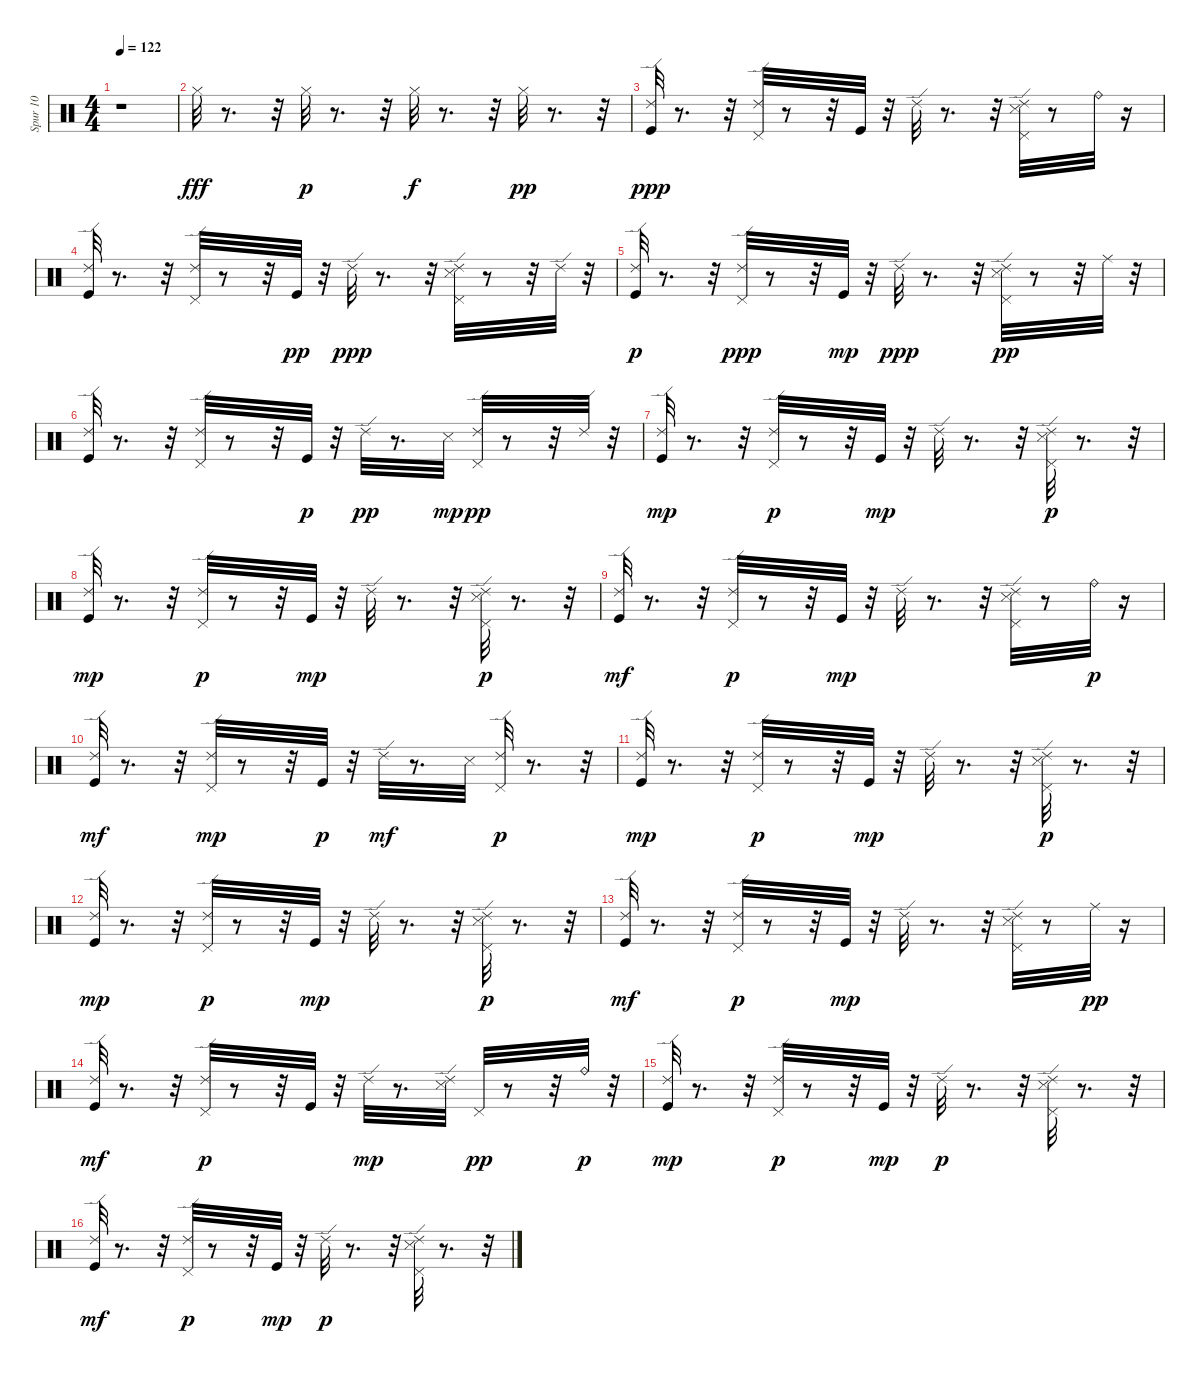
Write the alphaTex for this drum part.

\track ("Spur 10" "Spur 10") {instrument percussion}
\staff {score}
\articulation defaults
\ts (4 4)
\tempo 122
\clef neutral
\ks c
r.1{dy fff} |
"Hi-Hat (closed)".32 r.8{d} r.32 "Hi-Hat (closed)".32{dy p} r.8{d} r.32 "Hi-Hat (closed)".32{dy f} r.8{d} r.32 "Hi-Hat (closed)".32{dy pp} r.8{d} r.32 |
("Kick (hit)" "Ride (edge) 2").32{dy ppp} r.8{d} r.32 ("Pedal Hi-Hat (hit)" "Ride (edge) 2").32 r.8 r.32 "Kick (hit)".32 r.32 "Ride (edge) 2".32 r.8{d} r.32 ("Snare (side stick) 3" "Pedal Hi-Hat (hit)" "Ride (edge) 2").32 r.8 "Ride (bell)".32 r.16 |
("Kick (hit)" "Ride (edge) 2").32 r.8{d} r.32 ("Ride (edge) 2" "Pedal Hi-Hat (hit)").32 r.8 r.32 "Kick (hit)".32{dy pp} r.32 "Ride (edge) 2".32{dy ppp} r.8{d} r.32 ("Snare (side stick) 3" "Pedal Hi-Hat (hit)" "Ride (edge) 2").32 r.8 r.32 "Ride (edge) 2".32 r.32 |
("Ride (edge) 2" "Kick (hit)").32{dy p} r.8{d} r.32 ("Pedal Hi-Hat (hit)" "Ride (edge) 2").32{dy ppp} r.8 r.32 "Kick (hit)".32{dy mp} r.32 "Ride (edge) 2".32{dy ppp} r.8{d} r.32 ("Ride (edge) 2" "Snare (side stick) 3" "Pedal Hi-Hat (hit)").32{dy pp} r.8 r.32 "Ride (middle)".32 r.32 |
("Kick (hit)" "Ride (edge) 2").32 r.8{d} r.32 ("Pedal Hi-Hat (hit)" "Ride (edge) 2").32 r.8 r.32 "Kick (hit)".32{dy p} r.32 "Ride (edge) 2".32{dy pp} r.8{d} "Snare (side stick) 3".32{dy mp} ("Pedal Hi-Hat (hit)" "Ride (edge) 2").32{dy pp} r.8 r.32 "Ride (edge) 2".32 r.32 |
("Kick (hit)" "Ride (edge) 2").32{dy mp} r.8{d} r.32 ("Pedal Hi-Hat (hit)" "Ride (edge) 2").32{dy p} r.8 r.32 "Kick (hit)".32{dy mp} r.32 "Ride (edge) 2".32 r.8{d} r.32 ("Snare (side stick) 3" "Pedal Hi-Hat (hit)" "Ride (edge) 2").32{dy p} r.8{d} r.32 |
("Kick (hit)" "Ride (edge) 2").32{dy mp} r.8{d} r.32 ("Pedal Hi-Hat (hit)" "Ride (edge) 2").32{dy p} r.8 r.32 "Kick (hit)".32{dy mp} r.32 "Ride (edge) 2".32 r.8{d} r.32 ("Snare (side stick) 3" "Pedal Hi-Hat (hit)" "Ride (edge) 2").32{dy p} r.8{d} r.32 |
("Ride (edge) 2" "Kick (hit)").32{dy mf} r.8{d} r.32 ("Pedal Hi-Hat (hit)" "Ride (edge) 2").32{dy p} r.8 r.32 "Kick (hit)".32{dy mp} r.32 "Ride (edge) 2".32 r.8{d} r.32 ("Pedal Hi-Hat (hit)" "Snare (side stick) 3" "Ride (edge) 2").32 r.8 "Ride (bell)".32{dy p} r.16 |
("Ride (edge) 2" "Kick (hit)").32{dy mf} r.8{d} r.32 ("Pedal Hi-Hat (hit)" "Ride (edge) 2").32{dy mp} r.8 r.32 "Kick (hit)".32{dy p} r.32 "Ride (edge) 2".32{dy mf} r.8{d} "Snare (side stick) 3".32 ("Pedal Hi-Hat (hit)" "Ride (edge) 2").32{dy p} r.8{d} r.32 |
("Kick (hit)" "Ride (edge) 2").32{dy mp} r.8{d} r.32 ("Pedal Hi-Hat (hit)" "Ride (edge) 2").32{dy p} r.8 r.32 "Kick (hit)".32{dy mp} r.32 "Ride (edge) 2".32 r.8{d} r.32 ("Snare (side stick) 3" "Pedal Hi-Hat (hit)" "Ride (edge) 2").32{dy p} r.8{d} r.32 |
("Kick (hit)" "Ride (edge) 2").32{dy mp} r.8{d} r.32 ("Pedal Hi-Hat (hit)" "Ride (edge) 2").32{dy p} r.8 r.32 "Kick (hit)".32{dy mp} r.32 "Ride (edge) 2".32 r.8{d} r.32 ("Snare (side stick) 3" "Pedal Hi-Hat (hit)" "Ride (edge) 2").32{dy p} r.8{d} r.32 |
("Ride (edge) 2" "Kick (hit)").32{dy mf} r.8{d} r.32 ("Ride (edge) 2" "Pedal Hi-Hat (hit)").32{dy p} r.8 r.32 "Kick (hit)".32{dy mp} r.32 "Ride (edge) 2".32 r.8{d} r.32 ("Ride (edge) 2" "Pedal Hi-Hat (hit)" "Snare (side stick) 3").32 r.8 "Ride (middle)".32{dy pp} r.16 |
("Ride (edge) 2" "Kick (hit)").32{dy mf} r.8{d} r.32 ("Pedal Hi-Hat (hit)" "Ride (edge) 2").32{dy p} r.8 r.32 "Kick (hit)".32 r.32 "Ride (edge) 2".32{dy mp} r.8{d} ("Snare (side stick) 3" "Ride (edge) 2").32 "Pedal Hi-Hat (hit)".32{dy pp} r.8 r.32 "Ride (bell)".32{dy p} r.32 |
("Kick (hit)" "Ride (edge) 2").32{dy mp} r.8{d} r.32 ("Pedal Hi-Hat (hit)" "Ride (edge) 2").32{dy p} r.8 r.32 "Kick (hit)".32{dy mp} r.32 "Ride (edge) 2".32{dy p} r.8{d} r.32 ("Snare (side stick) 3" "Pedal Hi-Hat (hit)" "Ride (edge) 2").32 r.8{d} r.32 |
("Kick (hit)" "Ride (edge) 2").32{dy mf} r.8{d} r.32 ("Pedal Hi-Hat (hit)" "Ride (edge) 2").32{dy p} r.8 r.32 "Kick (hit)".32{dy mp} r.32 "Ride (edge) 2".32{dy p} r.8{d} r.32 ("Snare (side stick) 3" "Pedal Hi-Hat (hit)" "Ride (edge) 2").32 r.8{d} r.32
